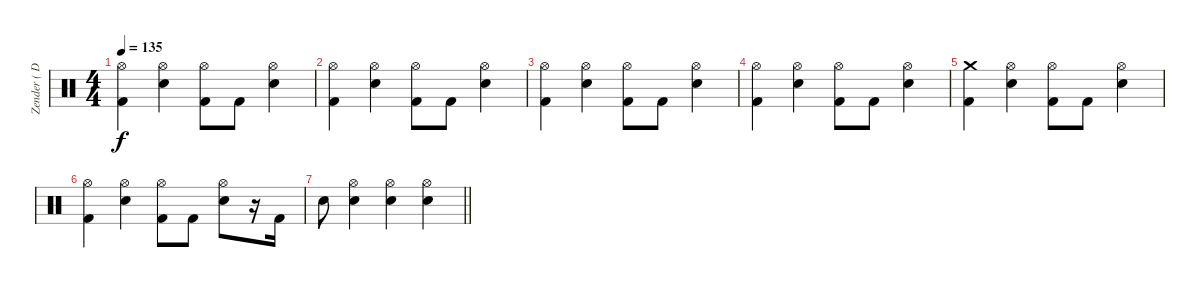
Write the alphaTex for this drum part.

\track ("Zender ( Drums )" "Zender ( D") {instrument percussion}
\staff {score}
\articulation defaults
\ts (4 4)
\tempo 135
\clef neutral
\ks c
("Hi-Hat (open)" "Kick (hit) 2").4{dy f} ("Hi-Hat (open)" "Electric Snare (hit)").4 ("Hi-Hat (open)" "Kick (hit) 2").8 "Kick (hit) 2".8 ("Hi-Hat (open)" "Electric Snare (hit)").4 |
("Hi-Hat (open)" "Kick (hit) 2").4 ("Hi-Hat (open)" "Electric Snare (hit)").4 ("Hi-Hat (open)" "Kick (hit) 2").8 "Kick (hit) 2".8 ("Hi-Hat (open)" "Electric Snare (hit)").4 |
("Hi-Hat (open)" "Kick (hit) 2").4 ("Hi-Hat (open)" "Electric Snare (hit)").4 ("Hi-Hat (open)" "Kick (hit) 2").8 "Kick (hit) 2".8 ("Hi-Hat (open)" "Electric Snare (hit)").4 |
("Hi-Hat (open)" "Kick (hit) 2").4 ("Hi-Hat (open)" "Electric Snare (hit)").4 ("Hi-Hat (open)" "Kick (hit) 2").8 "Kick (hit) 2".8 ("Hi-Hat (open)" "Electric Snare (hit)").4 |
("Crash medium (hit)" "Kick (hit) 2").4 ("Hi-Hat (open)" "Electric Snare (hit)").4 ("Hi-Hat (open)" "Kick (hit) 2").8 "Kick (hit) 2".8 ("Hi-Hat (open)" "Electric Snare (hit)").4 |
("Hi-Hat (open)" "Kick (hit) 2").4 ("Hi-Hat (open)" "Electric Snare (hit)").4 ("Hi-Hat (open)" "Kick (hit) 2").8 "Kick (hit) 2".8 ("Hi-Hat (open)" "Electric Snare (hit)").8 r.16 "Kick (hit) 2".16 |
\barLineRight lightlight "Electric Snare (hit)".8
("Hi-Hat (open)" "Electric Snare (hit)").4 ("Hi-Hat (open)" "Electric Snare (hit)").4 ("Hi-Hat (open)" "Electric Snare (hit)").4
